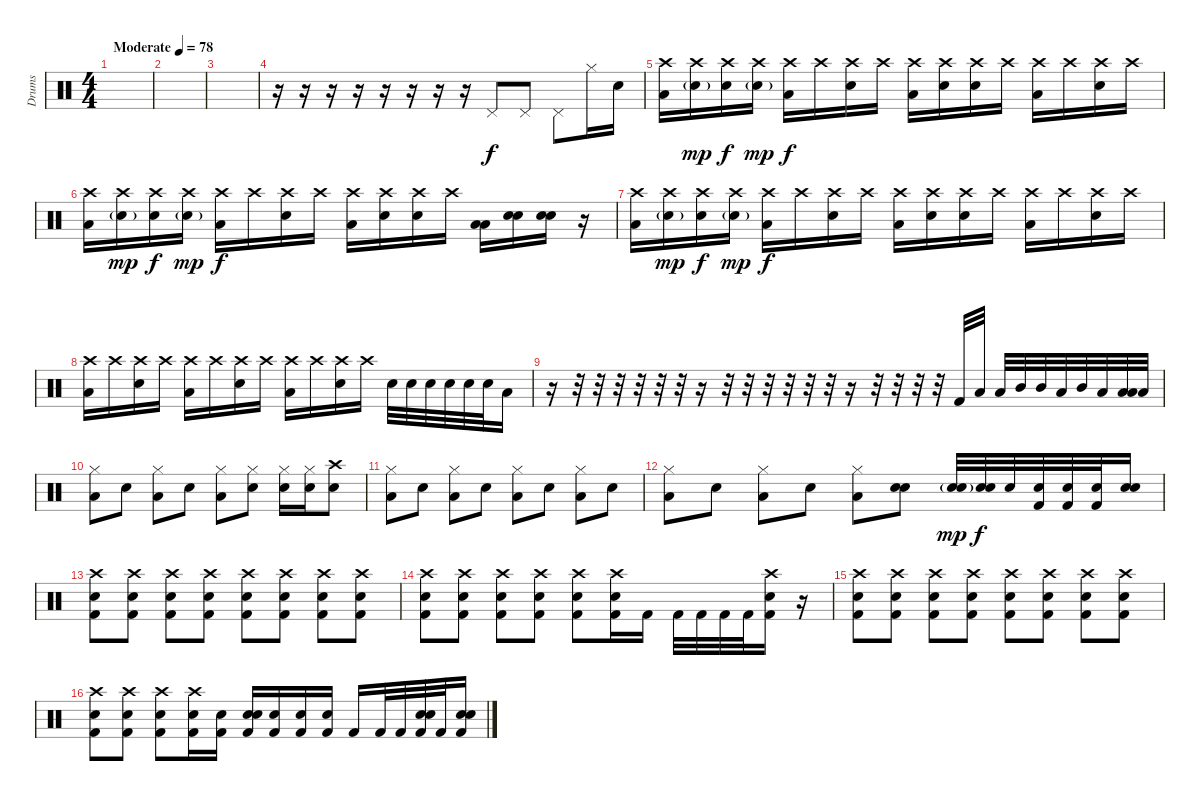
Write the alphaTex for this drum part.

\track ("Drums" "Drums") {instrument percussion}
\staff {score}
\articulation defaults
\ts (4 4)
\tempo (78 "Moderate")
\clef neutral
\ks c
|
|
|
r.16 r.16 r.16 r.16 r.16 r.16 r.16 r.16 "Pedal Hi-Hat (hit)".8 "Pedal Hi-Hat (hit)".8 "Pedal Hi-Hat (hit)".8 "Hi-Hat (closed)".16 "Electric Snare (hit)".16 |
("Crash high (hit)" "Low Tom (hit)").16 ("Crash high (hit)" "Snare (hit)"{g}).16{dy mp} ("Crash high (hit)" "Electric Snare (hit)").16{dy f} ("Crash high (hit)" "Snare (hit)"{g}).16{dy mp} ("Crash high (hit)" "Low Tom (hit)").16{dy f} "Crash high (hit)".16 ("Crash high (hit)" "Electric Snare (hit)").16 "Crash high (hit)".16 ("Crash high (hit)" "Low Tom (hit)").16 ("Crash high (hit)" "Snare (hit)").16 ("Crash high (hit)" "Electric Snare (hit)").16 "Crash high (hit)".16 ("Crash high (hit)" "Low Tom (hit)").16 "Crash high (hit)".16 ("Crash high (hit)" "Electric Snare (hit)").16 "Crash high (hit)".16 |
("Crash high (hit)" "Low Tom (hit)").16 ("Crash high (hit)" "Snare (hit)"{g}).16{dy mp} ("Crash high (hit)" "Electric Snare (hit)").16{dy f} ("Crash high (hit)" "Snare (hit)"{g}).16{dy mp} ("Crash high (hit)" "Low Tom (hit)").16{dy f} "Crash high (hit)".16 ("Crash high (hit)" "Electric Snare (hit)").16 "Crash high (hit)".16 ("Crash high (hit)" "Low Tom (hit)").16 ("Crash high (hit)" "Snare (hit)").16 ("Crash high (hit)" "Electric Snare (hit)").16 "Crash high (hit)".16 ("Low Tom (hit)" "Low Tom (hit)").16 ("Electric Snare (hit)" "Electric Snare (hit)").16 ("Electric Snare (hit)" "Electric Snare (hit)").16 r.16 |
("Crash high (hit)" "Low Tom (hit)").16 ("Crash high (hit)" "Snare (hit)"{g}).16{dy mp} ("Crash high (hit)" "Electric Snare (hit)").16{dy f} ("Crash high (hit)" "Snare (hit)"{g}).16{dy mp} ("Crash high (hit)" "Low Tom (hit)").16{dy f} "Crash high (hit)".16 ("Crash high (hit)" "Electric Snare (hit)").16 "Crash high (hit)".16 ("Crash high (hit)" "Low Tom (hit)").16 ("Crash high (hit)" "Snare (hit)").16 ("Crash high (hit)" "Electric Snare (hit)").16 "Crash high (hit)".16 ("Crash high (hit)" "Low Tom (hit)").16 "Crash high (hit)".16 ("Crash high (hit)" "Electric Snare (hit)").16 "Crash high (hit)".16 |
("Crash high (hit)" "Low Tom (hit)").16 "Crash high (hit)".16 ("Crash high (hit)" "Electric Snare (hit)").16 "Crash high (hit)".16 ("Crash high (hit)" "Low Tom (hit)").16 "Crash high (hit)".16 ("Crash high (hit)" "Electric Snare (hit)").16 "Crash high (hit)".16 ("Crash high (hit)" "Low Tom (hit)").16 "Crash high (hit)".16 ("Crash high (hit)" "Electric Snare (hit)").16 "Crash high (hit)".16 "Electric Snare (hit)".32 "Electric Snare (hit)".32 "Electric Snare (hit)".32 "Electric Snare (hit)".32 "Electric Snare (hit)".32 "Electric Snare (hit)".32 "Low Tom (hit)".16 |
r.16 r.32 r.32 r.32 r.32 r.32 r.32 r.16 r.32 r.32 r.32 r.32 r.32 r.32 r.16 r.32 r.32 r.32 r.32 "Kick (hit) 2".32 "Low Tom (hit)".32 "Low Tom (hit)".32 "Mid Tom (hit)".32 "Mid Tom (hit)".32 "Low Tom (hit)".32 "Mid Tom (hit)".32 "Low Tom (hit)".32 ("Low Tom (hit)" "Low Tom (hit)").32 "Low Tom (hit)".32 |
("Hi-Hat (closed)" "Low Tom (hit)").8 "Snare (hit) 2".8 ("Hi-Hat (closed)" "Low Tom (hit)").8 "Snare (hit) 2".8 ("Hi-Hat (closed)" "Low Tom (hit)").8 ("Snare (hit) 2" "Hi-Hat (closed)").8 ("Hi-Hat (closed)" "Snare (hit) 2").16 ("Hi-Hat (closed)" "Snare (hit) 2").16 ("Snare (hit) 2" "Crash high (hit)").8 |
("Hi-Hat (closed)" "Low Tom (hit)").8 "Snare (hit) 2".8 ("Hi-Hat (closed)" "Low Tom (hit)").8 "Snare (hit) 2".8 ("Hi-Hat (closed)" "Low Tom (hit)").8 "Snare (hit) 2".8 ("Hi-Hat (closed)" "Low Tom (hit)").8 "Snare (hit) 2".8 |
("Hi-Hat (closed)" "Low Tom (hit)").8 "Snare (hit) 2".8 ("Hi-Hat (closed)" "Low Tom (hit)").8 "Snare (hit) 2".8 ("Hi-Hat (closed)" "Low Tom (hit)").8 ("Snare (hit) 2" "Snare (hit) 2").8 ("Snare (hit) 2"{g} "Snare (hit) 2"{g}).32{dy mp} ("Snare (hit) 2" "Snare (hit) 2").32{dy f} "Snare (hit) 2".32 ("Snare (hit) 2" "Kick (hit) 2").32 ("Electric Snare (hit)" "Kick (hit) 2").32 ("Electric Snare (hit)" "Kick (hit) 2").32 ("Snare (hit) 2" "Electric Snare (hit)").16 |
("Crash high (hit)" "Kick (hit) 2" "Snare (hit) 2").8 ("Crash high (hit)" "Kick (hit) 2" "Snare (hit) 2").8 ("Crash high (hit)" "Kick (hit) 2" "Snare (hit) 2").8 ("Crash high (hit)" "Kick (hit) 2" "Snare (hit) 2").8 ("Crash high (hit)" "Kick (hit) 2" "Snare (hit) 2").8 ("Crash high (hit)" "Kick (hit) 2" "Snare (hit) 2").8 ("Crash high (hit)" "Kick (hit) 2" "Snare (hit) 2").8 ("Crash high (hit)" "Kick (hit) 2" "Snare (hit) 2").8 |
("Crash high (hit)" "Kick (hit) 2" "Snare (hit) 2").8 ("Crash high (hit)" "Kick (hit) 2" "Snare (hit) 2").8 ("Crash high (hit)" "Kick (hit) 2" "Snare (hit) 2").8 ("Crash high (hit)" "Kick (hit) 2" "Snare (hit) 2").8 ("Crash high (hit)" "Kick (hit) 2" "Snare (hit) 2").8 ("Crash high (hit)" "Kick (hit) 2" "Snare (hit) 2").16 "Kick (hit) 2".16 "Kick (hit) 2".32 "Kick (hit) 2".32 "Kick (hit) 2".32 "Kick (hit) 2".32 ("Crash high (hit)" "Kick (hit) 2" "Snare (hit) 2").16 r.16 |
("Crash high (hit)" "Kick (hit) 2" "Snare (hit) 2").8 ("Crash high (hit)" "Kick (hit) 2" "Snare (hit) 2").8 ("Crash high (hit)" "Kick (hit) 2" "Snare (hit) 2").8 ("Crash high (hit)" "Kick (hit) 2" "Snare (hit) 2").8 ("Crash high (hit)" "Kick (hit) 2" "Snare (hit) 2").8 ("Crash high (hit)" "Kick (hit) 2" "Snare (hit) 2").8 ("Crash high (hit)" "Kick (hit) 2" "Snare (hit) 2").8 ("Crash high (hit)" "Kick (hit) 2" "Snare (hit) 2").8 |
("Crash high (hit)" "Kick (hit) 2" "Snare (hit) 2").8 ("Crash high (hit)" "Kick (hit) 2" "Snare (hit) 2").8 ("Crash high (hit)" "Kick (hit) 2" "Snare (hit) 2").8 ("Crash high (hit)" "Kick (hit) 2" "Snare (hit) 2").16 ("Snare (hit)" "Kick (hit) 2").16 ("Electric Snare (hit)" "Kick (hit) 2" "Snare (hit)").16 ("Kick (hit) 2" "Snare (hit)").16 ("Snare (hit)" "Kick (hit) 2").16 ("Electric Snare (hit)" "Kick (hit) 2").16 "Kick (hit) 2".16 "Kick (hit) 2".32 "Kick (hit) 2".32 ("Electric Snare (hit)" "Kick (hit) 2" "Electric Snare (hit)").32 "Kick (hit) 2".32 ("Snare (hit)" "Kick (hit) 2" "Snare (hit)").16
